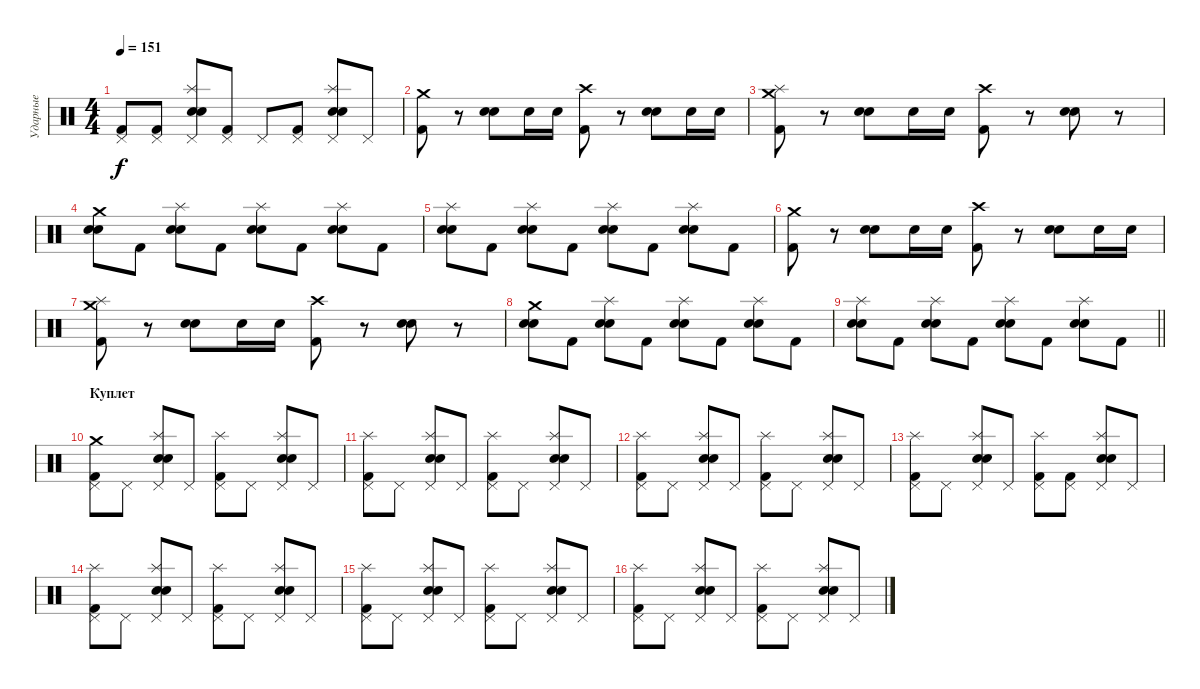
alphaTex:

\track ("Ударные" "Ударные") {instrument percussion}
\staff {score}
\articulation defaults
\ts (4 4)
\tempo 151
\clef neutral
\ks c
("Pedal Hi-Hat (hit)" "Kick (hit) 2").8{dy f} ("Pedal Hi-Hat (hit)" "Kick (hit) 2").8 ("Pedal Hi-Hat (hit)" "Splash (hit)" "Electric Snare (hit)" "Snare (hit) 2").8 ("Pedal Hi-Hat (hit)" "Kick (hit) 2").8 "Pedal Hi-Hat (hit)".8 ("Pedal Hi-Hat (hit)" "Kick (hit) 2").8 ("Pedal Hi-Hat (hit)" "Splash (hit)" "Electric Snare (hit)" "Snare (hit) 2").8 "Pedal Hi-Hat (hit)".8 |
("Crash medium (hit)" "Kick (hit) 2").8 r.8 ("Electric Snare (hit)" "Snare (hit) 2").8 "Electric Snare (hit)".16 "Electric Snare (hit)".16 ("Crash high (hit)" "Kick (hit) 2").8 r.8 ("Electric Snare (hit)" "Snare (hit) 2").8 "Electric Snare (hit)".16 "Electric Snare (hit)".16 |
("Splash (hit)" "Crash medium (hit)" "Kick (hit) 2").8 r.8 ("Electric Snare (hit)" "Snare (hit) 2").8 "Electric Snare (hit)".16 "Electric Snare (hit)".16 ("Crash high (hit)" "Kick (hit) 2").8 r.8 ("Electric Snare (hit)" "Snare (hit) 2").8 r.8 |
("Crash medium (hit)" "Electric Snare (hit)" "Snare (hit) 2").8 "Kick (hit) 2".8 ("Splash (hit)" "Electric Snare (hit)" "Snare (hit) 2").8 "Kick (hit) 2".8 ("Splash (hit)" "Electric Snare (hit)" "Snare (hit) 2").8 "Kick (hit) 2".8 ("Splash (hit)" "Electric Snare (hit)" "Snare (hit) 2").8 "Kick (hit) 2".8 |
("Splash (hit)" "Electric Snare (hit)" "Snare (hit) 2").8 "Kick (hit) 2".8 ("Splash (hit)" "Electric Snare (hit)" "Snare (hit) 2").8 "Kick (hit) 2".8 ("Splash (hit)" "Electric Snare (hit)" "Snare (hit) 2").8 "Kick (hit) 2".8 ("Splash (hit)" "Electric Snare (hit)" "Snare (hit) 2").8 "Kick (hit) 2".8 |
("Crash medium (hit)" "Kick (hit) 2").8 r.8 ("Electric Snare (hit)" "Snare (hit) 2").8 "Electric Snare (hit)".16 "Electric Snare (hit)".16 ("Crash high (hit)" "Kick (hit) 2").8 r.8 ("Electric Snare (hit)" "Snare (hit) 2").8 "Electric Snare (hit)".16 "Electric Snare (hit)".16 |
("Splash (hit)" "Crash medium (hit)" "Kick (hit) 2").8 r.8 ("Electric Snare (hit)" "Snare (hit) 2").8 "Electric Snare (hit)".16 "Electric Snare (hit)".16 ("Crash high (hit)" "Kick (hit) 2").8 r.8 ("Electric Snare (hit)" "Snare (hit) 2").8 r.8 |
("Crash medium (hit)" "Electric Snare (hit)" "Snare (hit) 2").8 "Kick (hit) 2".8 ("Splash (hit)" "Electric Snare (hit)" "Snare (hit) 2").8 "Kick (hit) 2".8 ("Splash (hit)" "Electric Snare (hit)" "Snare (hit) 2").8 "Kick (hit) 2".8 ("Splash (hit)" "Electric Snare (hit)" "Snare (hit) 2").8 "Kick (hit) 2".8 |
\barLineRight lightlight
("Splash (hit)" "Electric Snare (hit)" "Snare (hit) 2").8 "Kick (hit) 2".8 ("Splash (hit)" "Electric Snare (hit)" "Snare (hit) 2").8 "Kick (hit) 2".8 ("Splash (hit)" "Electric Snare (hit)" "Snare (hit) 2").8 "Kick (hit) 2".8 ("Splash (hit)" "Electric Snare (hit)" "Snare (hit) 2").8 "Kick (hit) 2".8 |
\section ("" "Куплет")
("Pedal Hi-Hat (hit)" "Crash medium (hit)" "Kick (hit) 2").8 "Pedal Hi-Hat (hit)".8 ("Pedal Hi-Hat (hit)" "Splash (hit)" "Electric Snare (hit)" "Snare (hit) 2").8 "Pedal Hi-Hat (hit)".8 ("Pedal Hi-Hat (hit)" "Splash (hit)" "Kick (hit) 2").8 "Pedal Hi-Hat (hit)".8 ("Pedal Hi-Hat (hit)" "Splash (hit)" "Electric Snare (hit)" "Snare (hit) 2").8 "Pedal Hi-Hat (hit)".8 |
("Pedal Hi-Hat (hit)" "Splash (hit)" "Kick (hit) 2").8 "Pedal Hi-Hat (hit)".8 ("Pedal Hi-Hat (hit)" "Splash (hit)" "Electric Snare (hit)" "Snare (hit) 2").8 "Pedal Hi-Hat (hit)".8 ("Pedal Hi-Hat (hit)" "Splash (hit)" "Kick (hit) 2").8 "Pedal Hi-Hat (hit)".8 ("Pedal Hi-Hat (hit)" "Splash (hit)" "Electric Snare (hit)" "Snare (hit) 2").8 "Pedal Hi-Hat (hit)".8 |
("Pedal Hi-Hat (hit)" "Splash (hit)" "Kick (hit) 2").8 "Pedal Hi-Hat (hit)".8 ("Pedal Hi-Hat (hit)" "Splash (hit)" "Electric Snare (hit)" "Snare (hit) 2").8 "Pedal Hi-Hat (hit)".8 ("Pedal Hi-Hat (hit)" "Splash (hit)" "Kick (hit) 2").8 "Pedal Hi-Hat (hit)".8 ("Pedal Hi-Hat (hit)" "Splash (hit)" "Electric Snare (hit)" "Snare (hit) 2").8 "Pedal Hi-Hat (hit)".8 |
("Pedal Hi-Hat (hit)" "Splash (hit)" "Kick (hit) 2").8 "Pedal Hi-Hat (hit)".8 ("Pedal Hi-Hat (hit)" "Splash (hit)" "Electric Snare (hit)" "Snare (hit) 2").8 "Pedal Hi-Hat (hit)".8 ("Pedal Hi-Hat (hit)" "Splash (hit)" "Kick (hit) 2").8 ("Pedal Hi-Hat (hit)" "Kick (hit) 2").8 ("Pedal Hi-Hat (hit)" "Splash (hit)" "Electric Snare (hit)" "Snare (hit) 2").8 "Pedal Hi-Hat (hit)".8 |
("Pedal Hi-Hat (hit)" "Splash (hit)" "Kick (hit) 2").8 "Pedal Hi-Hat (hit)".8 ("Pedal Hi-Hat (hit)" "Splash (hit)" "Electric Snare (hit)" "Snare (hit) 2").8 "Pedal Hi-Hat (hit)".8 ("Pedal Hi-Hat (hit)" "Splash (hit)" "Kick (hit) 2").8 "Pedal Hi-Hat (hit)".8 ("Pedal Hi-Hat (hit)" "Splash (hit)" "Electric Snare (hit)" "Snare (hit) 2").8 "Pedal Hi-Hat (hit)".8 |
("Pedal Hi-Hat (hit)" "Splash (hit)" "Kick (hit) 2").8 "Pedal Hi-Hat (hit)".8 ("Pedal Hi-Hat (hit)" "Splash (hit)" "Electric Snare (hit)" "Snare (hit) 2").8 "Pedal Hi-Hat (hit)".8 ("Pedal Hi-Hat (hit)" "Splash (hit)" "Kick (hit) 2").8 "Pedal Hi-Hat (hit)".8 ("Pedal Hi-Hat (hit)" "Splash (hit)" "Electric Snare (hit)" "Snare (hit) 2").8 "Pedal Hi-Hat (hit)".8 |
("Pedal Hi-Hat (hit)" "Splash (hit)" "Kick (hit) 2").8 "Pedal Hi-Hat (hit)".8 ("Pedal Hi-Hat (hit)" "Splash (hit)" "Electric Snare (hit)" "Snare (hit) 2").8 "Pedal Hi-Hat (hit)".8 ("Pedal Hi-Hat (hit)" "Splash (hit)" "Kick (hit) 2").8 "Pedal Hi-Hat (hit)".8 ("Pedal Hi-Hat (hit)" "Splash (hit)" "Electric Snare (hit)" "Snare (hit) 2").8 "Pedal Hi-Hat (hit)".8
